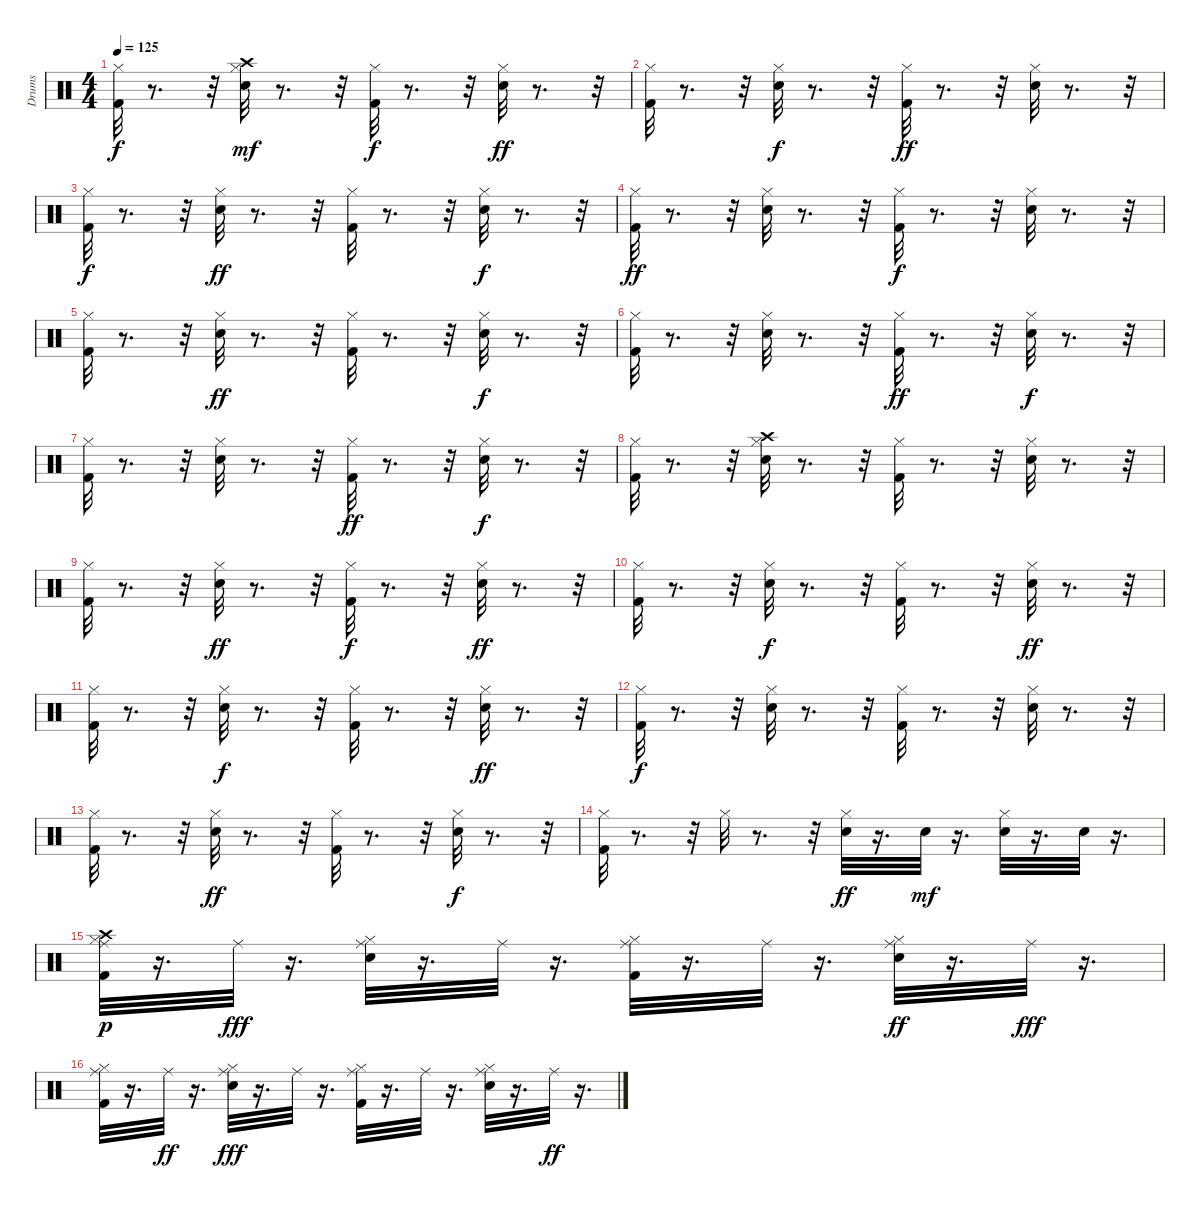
\track ("Drums" "Drums") {instrument percussion}
\staff {score}
\articulation defaults
\ts (4 4)
\tempo 125
\clef neutral
\ks c
("Kick (hit) 2" "Hi-Hat (closed)").32{dy f} r.8{d} r.32 ("Snare (hit) 2" "Crash high (hit)" "Hi-Hat (closed)").32{dy mf} r.8{d} r.32 ("Hi-Hat (closed)" "Kick (hit) 2").32{dy f} r.8{d} r.32 ("Hi-Hat (closed)" "Snare (hit) 2").32{dy ff} r.8{d} r.32 |
("Hi-Hat (closed)" "Kick (hit) 2").32 r.8{d} r.32 ("Hi-Hat (closed)" "Snare (hit) 2").32{dy f} r.8{d} r.32 ("Kick (hit) 2" "Hi-Hat (closed)").32{dy ff} r.8{d} r.32 ("Hi-Hat (closed)" "Snare (hit) 2").32 r.8{d} r.32 |
("Kick (hit) 2" "Hi-Hat (closed)").32{dy f} r.8{d} r.32 ("Snare (hit) 2" "Hi-Hat (closed)").32{dy ff} r.8{d} r.32 ("Hi-Hat (closed)" "Kick (hit) 2").32 r.8{d} r.32 ("Hi-Hat (closed)" "Snare (hit) 2").32{dy f} r.8{d} r.32 |
("Hi-Hat (closed)" "Kick (hit) 2").32{dy ff} r.8{d} r.32 ("Hi-Hat (closed)" "Snare (hit) 2").32 r.8{d} r.32 ("Hi-Hat (closed)" "Kick (hit) 2").32{dy f} r.8{d} r.32 ("Snare (hit) 2" "Hi-Hat (closed)").32 r.8{d} r.32 |
("Hi-Hat (closed)" "Kick (hit) 2").32 r.8{d} r.32 ("Snare (hit) 2" "Hi-Hat (closed)").32{dy ff} r.8{d} r.32 ("Kick (hit) 2" "Hi-Hat (closed)").32 r.8{d} r.32 ("Hi-Hat (closed)" "Snare (hit) 2").32{dy f} r.8{d} r.32 |
("Kick (hit) 2" "Hi-Hat (closed)").32 r.8{d} r.32 ("Hi-Hat (closed)" "Snare (hit) 2").32 r.8{d} r.32 ("Kick (hit) 2" "Hi-Hat (closed)").32{dy ff} r.8{d} r.32 ("Snare (hit) 2" "Hi-Hat (closed)").32{dy f} r.8{d} r.32 |
("Hi-Hat (closed)" "Kick (hit) 2").32 r.8{d} r.32 ("Snare (hit) 2" "Hi-Hat (closed)").32 r.8{d} r.32 ("Kick (hit) 2" "Hi-Hat (closed)").32{dy ff} r.8{d} r.32 ("Hi-Hat (closed)" "Snare (hit) 2").32{dy f} r.8{d} r.32 |
("Kick (hit) 2" "Hi-Hat (closed)").32 r.8{d} r.32 ("Hi-Hat (closed)" "Snare (hit) 2" "Crash high (hit)").32 r.8{d} r.32 ("Hi-Hat (closed)" "Kick (hit) 2").32 r.8{d} r.32 ("Hi-Hat (closed)" "Snare (hit) 2").32 r.8{d} r.32 |
("Hi-Hat (closed)" "Kick (hit) 2").32 r.8{d} r.32 ("Hi-Hat (closed)" "Snare (hit) 2").32{dy ff} r.8{d} r.32 ("Kick (hit) 2" "Hi-Hat (closed)").32{dy f} r.8{d} r.32 ("Hi-Hat (closed)" "Snare (hit) 2").32{dy ff} r.8{d} r.32 |
("Kick (hit) 2" "Hi-Hat (closed)").32 r.8{d} r.32 ("Hi-Hat (closed)" "Snare (hit) 2").32{dy f} r.8{d} r.32 ("Hi-Hat (closed)" "Kick (hit) 2").32 r.8{d} r.32 ("Snare (hit) 2" "Hi-Hat (closed)").32{dy ff} r.8{d} r.32 |
("Hi-Hat (closed)" "Kick (hit) 2").32 r.8{d} r.32 ("Hi-Hat (closed)" "Snare (hit) 2").32{dy f} r.8{d} r.32 ("Kick (hit) 2" "Hi-Hat (closed)").32 r.8{d} r.32 ("Hi-Hat (closed)" "Snare (hit) 2").32{dy ff} r.8{d} r.32 |
("Hi-Hat (closed)" "Kick (hit) 2").32{dy f} r.8{d} r.32 ("Hi-Hat (closed)" "Snare (hit) 2").32 r.8{d} r.32 ("Hi-Hat (closed)" "Kick (hit) 2").32 r.8{d} r.32 ("Snare (hit) 2" "Hi-Hat (closed)").32 r.8{d} r.32 |
("Kick (hit) 2" "Hi-Hat (closed)").32 r.8{d} r.32 ("Hi-Hat (closed)" "Snare (hit) 2").32{dy ff} r.8{d} r.32 ("Kick (hit) 2" "Hi-Hat (closed)").32 r.8{d} r.32 ("Snare (hit) 2" "Hi-Hat (closed)").32{dy f} r.8{d} r.32 |
("Kick (hit) 2" "Hi-Hat (closed)").32 r.8{d} r.32 "Hi-Hat (closed)".32 r.8{d} r.32 ("Hi-Hat (closed)" "Snare (hit) 2").32{dy ff} r.16{d} "Snare (hit) 2".32{dy mf} r.16{d} ("Hi-Hat (closed)" "Snare (hit) 2").32 r.16{d} "Snare (hit) 2".32 r.16{d} |
("Ride (middle)" "Crash high (hit)" "Kick (hit) 2" "Hi-Hat (closed)").32{dy p} r.16{d} "Ride (middle)".32{dy fff} r.16{d} ("Snare (hit) 2" "Ride (middle)" "Hi-Hat (closed)").32 r.16{d} "Ride (middle)".32 r.16{d} ("Ride (middle)" "Hi-Hat (closed)" "Kick (hit) 2").32 r.16{d} "Ride (middle)".32 r.16{d} ("Ride (middle)" "Hi-Hat (closed)" "Snare (hit) 2").32{dy ff} r.16{d} "Ride (middle)".32{dy fff} r.16{d} |
("Kick (hit) 2" "Ride (middle)" "Hi-Hat (closed)").32 r.16{d} "Ride (middle)".32{dy ff} r.16{d} ("Snare (hit) 2" "Hi-Hat (closed)" "Ride (middle)").32{dy fff} r.16{d} "Ride (middle)".32 r.16{d} ("Hi-Hat (closed)" "Kick (hit) 2" "Ride (middle)").32 r.16{d} "Ride (middle)".32 r.16{d} ("Ride (middle)" "Hi-Hat (closed)" "Snare (hit) 2").32 r.16{d} "Ride (middle)".32{dy ff} r.16{d}
